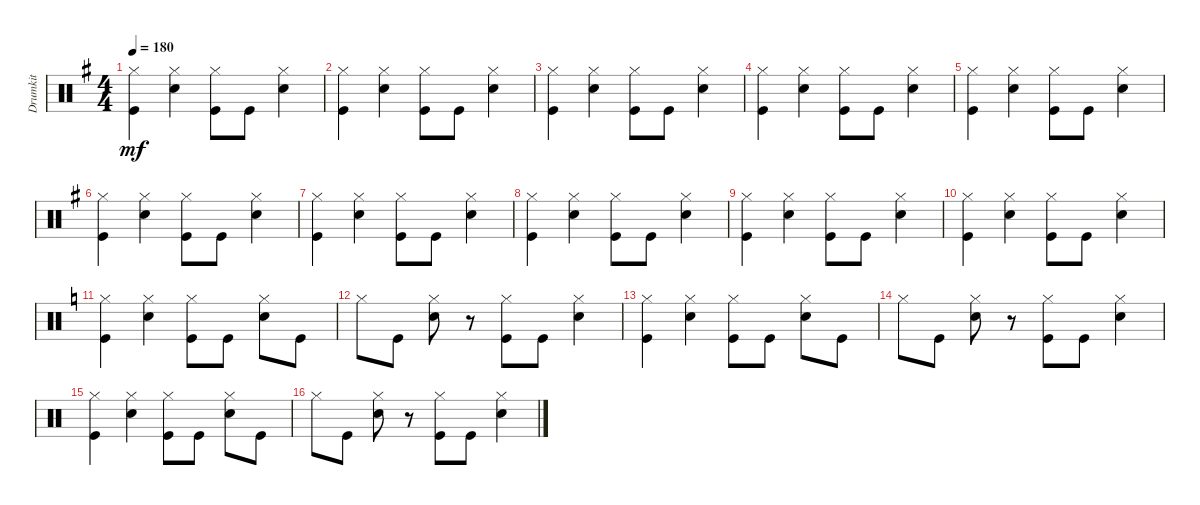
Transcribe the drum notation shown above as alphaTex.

\track ("Drumkit" "Drumkit") {instrument percussion}
\staff {score}
\articulation defaults
\ts (4 4)
\tempo 180
\clef neutral
\ks g
("Hi-Hat (closed)" "Kick (hit)").4{dy mf} ("Hi-Hat (closed)" "Snare (hit) 2").4 ("Kick (hit)" "Hi-Hat (closed)").8 "Kick (hit)".8 ("Snare (hit) 2" "Hi-Hat (closed)").4 |
("Hi-Hat (closed)" "Kick (hit)").4 ("Hi-Hat (closed)" "Snare (hit) 2").4 ("Kick (hit)" "Hi-Hat (closed)").8 "Kick (hit)".8 ("Snare (hit) 2" "Hi-Hat (closed)").4 |
("Hi-Hat (closed)" "Kick (hit)").4 ("Hi-Hat (closed)" "Snare (hit) 2").4 ("Kick (hit)" "Hi-Hat (closed)").8 "Kick (hit)".8 ("Snare (hit) 2" "Hi-Hat (closed)").4 |
("Hi-Hat (closed)" "Kick (hit)").4 ("Hi-Hat (closed)" "Snare (hit) 2").4 ("Kick (hit)" "Hi-Hat (closed)").8 "Kick (hit)".8 ("Snare (hit) 2" "Hi-Hat (closed)").4 |
("Hi-Hat (closed)" "Kick (hit)").4 ("Hi-Hat (closed)" "Snare (hit) 2").4 ("Kick (hit)" "Hi-Hat (closed)").8 "Kick (hit)".8 ("Snare (hit) 2" "Hi-Hat (closed)").4 |
("Hi-Hat (closed)" "Kick (hit)").4 ("Hi-Hat (closed)" "Snare (hit) 2").4 ("Kick (hit)" "Hi-Hat (closed)").8 "Kick (hit)".8 ("Snare (hit) 2" "Hi-Hat (closed)").4 |
("Hi-Hat (closed)" "Kick (hit)").4 ("Hi-Hat (closed)" "Snare (hit) 2").4 ("Kick (hit)" "Hi-Hat (closed)").8 "Kick (hit)".8 ("Snare (hit) 2" "Hi-Hat (closed)").4 |
("Hi-Hat (closed)" "Kick (hit)").4 ("Hi-Hat (closed)" "Snare (hit) 2").4 ("Kick (hit)" "Hi-Hat (closed)").8 "Kick (hit)".8 ("Snare (hit) 2" "Hi-Hat (closed)").4 |
("Hi-Hat (closed)" "Kick (hit)").4 ("Hi-Hat (closed)" "Snare (hit) 2").4 ("Kick (hit)" "Hi-Hat (closed)").8 "Kick (hit)".8 ("Snare (hit) 2" "Hi-Hat (closed)").4 |
("Hi-Hat (closed)" "Kick (hit)").4 ("Hi-Hat (closed)" "Snare (hit) 2").4 ("Kick (hit)" "Hi-Hat (closed)").8 "Kick (hit)".8 ("Snare (hit) 2" "Hi-Hat (closed)").4 |
\ks c
("Kick (hit)" "Hi-Hat (closed)").4 ("Snare (hit) 2" "Hi-Hat (closed)").4 ("Kick (hit)" "Hi-Hat (closed)").8 "Kick (hit)".8 ("Snare (hit) 2" "Hi-Hat (closed)").8 "Kick (hit)".8 |
"Hi-Hat (closed)".8 "Kick (hit)".8 ("Snare (hit) 2" "Hi-Hat (closed)").8 r.8 ("Kick (hit)" "Hi-Hat (closed)").8 "Kick (hit)".8 ("Snare (hit) 2" "Hi-Hat (closed)").4 |
("Kick (hit)" "Hi-Hat (closed)").4 ("Snare (hit) 2" "Hi-Hat (closed)").4 ("Kick (hit)" "Hi-Hat (closed)").8 "Kick (hit)".8 ("Snare (hit) 2" "Hi-Hat (closed)").8 "Kick (hit)".8 |
"Hi-Hat (closed)".8 "Kick (hit)".8 ("Snare (hit) 2" "Hi-Hat (closed)").8 r.8 ("Kick (hit)" "Hi-Hat (closed)").8 "Kick (hit)".8 ("Snare (hit) 2" "Hi-Hat (closed)").4 |
("Kick (hit)" "Hi-Hat (closed)").4 ("Snare (hit) 2" "Hi-Hat (closed)").4 ("Kick (hit)" "Hi-Hat (closed)").8 "Kick (hit)".8 ("Snare (hit) 2" "Hi-Hat (closed)").8 "Kick (hit)".8 |
"Hi-Hat (closed)".8 "Kick (hit)".8 ("Snare (hit) 2" "Hi-Hat (closed)").8 r.8 ("Kick (hit)" "Hi-Hat (closed)").8 "Kick (hit)".8 ("Snare (hit) 2" "Hi-Hat (closed)").4
